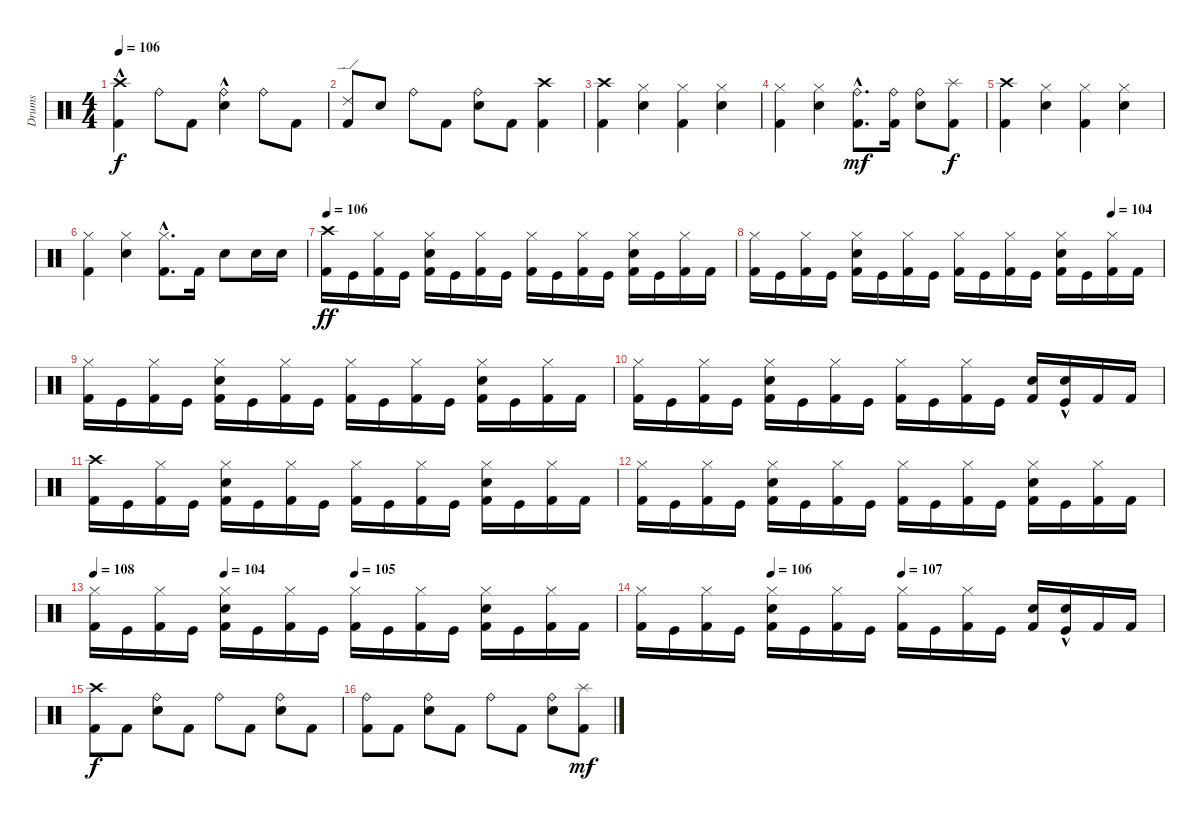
\track ("Drums" "Drums") {instrument percussion}
\staff {score}
\articulation defaults
\ts (4 4)
\tempo 106
\clef neutral
\ks c
("Kick (hit) 2"{hac} "Crash high (hit)").4{dy f} "Ride (bell)".8 "Kick (hit) 2".8 ("Electric Snare (hit)"{hac} "Ride (bell)").4 "Ride (bell)".8 "Kick (hit) 2".8 |
("Kick (hit) 2" "Ride (edge) 2").8 "Electric Snare (hit)".8 "Ride (bell)".8 "Kick (hit) 2".8 ("Ride (bell)" "Electric Snare (hit)").8 "Kick (hit) 2".8 ("Kick (hit) 2" "Crash high (hit)").4 |
("Kick (hit) 2" "Crash high (hit)").4 ("Electric Snare (hit)" "Hi-Hat (closed)").4 ("Kick (hit) 2" "Hi-Hat (closed)").4 ("Hi-Hat (closed)" "Electric Snare (hit)").4 |
("Kick (hit) 2" "Hi-Hat (closed)").4 ("Electric Snare (hit)" "Hi-Hat (closed)").4 ("Ride (bell)"{hac} "Kick (hit) 2"{hac}).8{d dy mf} ("Kick (hit) 2" "Ride (bell)").16 ("Electric Snare (hit)" "Ride (bell)").8 ("Splash (hit)" "Kick (hit) 2").8{dy f} |
("Kick (hit) 2" "Crash high (hit)").4 ("Electric Snare (hit)" "Hi-Hat (closed)").4 ("Hi-Hat (closed)" "Kick (hit) 2").4 ("Hi-Hat (closed)" "Electric Snare (hit)").4 |
("Hi-Hat (closed)" "Kick (hit) 2").4 ("Electric Snare (hit)" "Hi-Hat (closed)").4 ("Kick (hit) 2"{hac} "Hi-Hat (closed)").8{d} "Kick (hit) 2".16 "Electric Snare (hit)".8 "Electric Snare (hit)".16 "Electric Snare (hit)".16 |
\tempo 106
("Crash high (hit)" "Kick (hit) 2").16{dy ff} "Kick (hit)".16 ("Hi-Hat (closed)" "Kick (hit) 2").16 "Kick (hit)".16 ("Electric Snare (hit)" "Kick (hit) 2" "Hi-Hat (closed)").16 "Kick (hit)".16 ("Kick (hit) 2" "Hi-Hat (closed)").16 "Kick (hit)".16 ("Hi-Hat (closed)" "Kick (hit) 2").16 "Kick (hit)".16 ("Kick (hit) 2" "Hi-Hat (closed)").16 "Kick (hit)".16 ("Electric Snare (hit)" "Kick (hit) 2" "Hi-Hat (closed)").16 "Kick (hit)".16 ("Kick (hit) 2" "Hi-Hat (closed)").16 "Kick (hit) 2".16 |
\tempo (104 0.875)
("Kick (hit) 2" "Hi-Hat (closed)").16 "Kick (hit)".16 ("Hi-Hat (closed)" "Kick (hit) 2").16 "Kick (hit)".16 ("Hi-Hat (closed)" "Electric Snare (hit)" "Kick (hit) 2").16 "Kick (hit)".16 ("Hi-Hat (closed)" "Kick (hit) 2").16 "Kick (hit)".16 ("Hi-Hat (closed)" "Kick (hit) 2").16 "Kick (hit)".16 ("Kick (hit) 2" "Hi-Hat (closed)").16 "Kick (hit)".16 ("Kick (hit) 2" "Electric Snare (hit)" "Hi-Hat (closed)").16 "Kick (hit)".16 ("Kick (hit) 2" "Hi-Hat (closed)").16 "Kick (hit) 2".16 |
("Kick (hit) 2" "Hi-Hat (closed)").16 "Kick (hit)".16 ("Hi-Hat (closed)" "Kick (hit) 2").16 "Kick (hit)".16 ("Hi-Hat (closed)" "Kick (hit) 2" "Electric Snare (hit)").16 "Kick (hit)".16 ("Kick (hit) 2" "Hi-Hat (closed)").16 "Kick (hit)".16 ("Kick (hit) 2" "Hi-Hat (closed)").16 "Kick (hit)".16 ("Hi-Hat (closed)" "Kick (hit) 2").16 "Kick (hit)".16 ("Electric Snare (hit)" "Kick (hit) 2" "Hi-Hat (closed)").16 "Kick (hit)".16 ("Kick (hit) 2" "Hi-Hat (closed)").16 "Kick (hit) 2".16 |
("Hi-Hat (closed)" "Kick (hit) 2").16 "Kick (hit)".16 ("Hi-Hat (closed)" "Kick (hit) 2").16 "Kick (hit)".16 ("Kick (hit) 2" "Hi-Hat (closed)" "Electric Snare (hit)").16 "Kick (hit)".16 ("Kick (hit) 2" "Hi-Hat (closed)").16 "Kick (hit)".16 ("Hi-Hat (closed)" "Kick (hit) 2").16 "Kick (hit)".16 ("Hi-Hat (closed)" "Kick (hit) 2").16 "Kick (hit)".16 ("Kick (hit) 2" "Electric Snare (hit)").16 ("Electric Snare (hit)"{hac} "Kick (hit)").16 "Kick (hit) 2".16 "Kick (hit) 2".16 |
("Kick (hit) 2" "Crash high (hit)").16 "Kick (hit)".16 ("Kick (hit) 2" "Hi-Hat (closed)").16 "Kick (hit)".16 ("Kick (hit) 2" "Electric Snare (hit)" "Hi-Hat (closed)").16 "Kick (hit)".16 ("Hi-Hat (closed)" "Kick (hit) 2").16 "Kick (hit)".16 ("Kick (hit) 2" "Hi-Hat (closed)").16 "Kick (hit)".16 ("Kick (hit) 2" "Hi-Hat (closed)").16 "Kick (hit)".16 ("Kick (hit) 2" "Electric Snare (hit)" "Hi-Hat (closed)").16 "Kick (hit)".16 ("Kick (hit) 2" "Hi-Hat (closed)").16 "Kick (hit) 2".16 |
("Kick (hit) 2" "Hi-Hat (closed)").16 "Kick (hit)".16 ("Kick (hit) 2" "Hi-Hat (closed)").16 "Kick (hit)".16 ("Electric Snare (hit)" "Hi-Hat (closed)" "Kick (hit) 2").16 "Kick (hit)".16 ("Hi-Hat (closed)" "Kick (hit) 2").16 "Kick (hit)".16 ("Hi-Hat (closed)" "Kick (hit) 2").16 "Kick (hit)".16 ("Hi-Hat (closed)" "Kick (hit) 2").16 "Kick (hit)".16 ("Electric Snare (hit)" "Kick (hit) 2" "Hi-Hat (closed)").16 "Kick (hit)".16 ("Kick (hit) 2" "Hi-Hat (closed)").16 "Kick (hit) 2".16 |
\tempo 108
\tempo (104 0.25)
\tempo (105 0.5)
("Hi-Hat (closed)" "Kick (hit) 2").16 "Kick (hit)".16 ("Kick (hit) 2" "Hi-Hat (closed)").16 "Kick (hit)".16 ("Electric Snare (hit)" "Hi-Hat (closed)" "Kick (hit) 2").16 "Kick (hit)".16 ("Hi-Hat (closed)" "Kick (hit) 2").16 "Kick (hit)".16 ("Kick (hit) 2" "Hi-Hat (closed)").16 "Kick (hit)".16 ("Kick (hit) 2" "Hi-Hat (closed)").16 "Kick (hit)".16 ("Hi-Hat (closed)" "Kick (hit) 2" "Electric Snare (hit)").16 "Kick (hit)".16 ("Kick (hit) 2" "Hi-Hat (closed)").16 "Kick (hit) 2".16 |
\tempo (106 0.25)
\tempo (107 0.5)
("Kick (hit) 2" "Hi-Hat (closed)").16 "Kick (hit)".16 ("Kick (hit) 2" "Hi-Hat (closed)").16 "Kick (hit)".16 ("Electric Snare (hit)" "Kick (hit) 2" "Hi-Hat (closed)").16 "Kick (hit)".16 ("Kick (hit) 2" "Hi-Hat (closed)").16 "Kick (hit)".16 ("Kick (hit) 2" "Hi-Hat (closed)").16 "Kick (hit)".16 ("Kick (hit) 2" "Hi-Hat (closed)").16 "Kick (hit)".16 ("Electric Snare (hit)" "Kick (hit) 2").16 ("Kick (hit)" "Electric Snare (hit)"{hac}).16 "Kick (hit) 2".16 "Kick (hit) 2".16 |
("Crash high (hit)" "Kick (hit) 2").8{dy f} "Kick (hit) 2".8 ("Electric Snare (hit)" "Ride (bell)").8 "Kick (hit) 2".8 "Ride (bell)".8 "Kick (hit) 2".8 ("Electric Snare (hit)" "Ride (bell)").8 "Kick (hit) 2".8 |
("Kick (hit) 2" "Ride (bell)").8 "Kick (hit) 2".8 ("Electric Snare (hit)" "Ride (bell)").8 "Kick (hit) 2".8 "Ride (bell)".8 "Kick (hit) 2".8 ("Electric Snare (hit)" "Ride (bell)").8 ("Kick (hit) 2" "Splash (hit)").8{dy mf}
